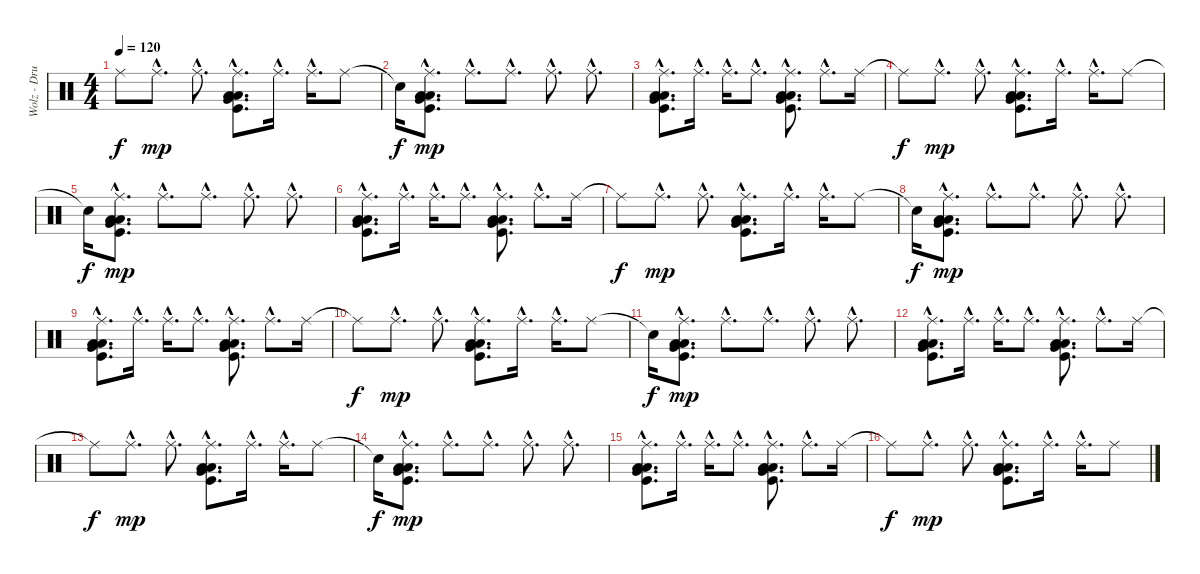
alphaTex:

\track ("Wolz - Drums" "Wolz - Dru") {instrument percussion}
\staff {score}
\articulation defaults
\ts (4 4)
\tempo 120
\clef neutral
\ks c "Ride (middle)"{t}.8{dy f} "Ride (middle)"{hac}.8{d dy mp} "Ride (middle)"{hac}.8{d bu 60}
("Ride (middle)"{hac} "Low Tom (hit)"{hac} "Very Low Tom (hit)"{hac} "Low Floor Tom (hit)"{hac} "Kick (hit)"{hac}).8{d bu 60} "Ride (middle)"{hac}.16{d} "Ride (middle)"{hac}.16{d} "Ride (middle)".8 |
"Snare (hit)"{t}.16{dy f} ("Ride (middle)"{hac} "Low Tom (hit)"{hac} "Very Low Tom (hit)"{hac} "Low Floor Tom (hit)"{hac} "Kick (hit)"{hac}).8{d bu 60 dy mp} "Ride (middle)"{hac}.8{d} "Ride (middle)"{hac}.8{d} "Ride (middle)"{hac}.8{d} "Ride (middle)"{hac}.8{d} |
("Ride (middle)"{hac} "Low Tom (hit)"{hac} "Very Low Tom (hit)"{hac} "Low Floor Tom (hit)"{hac} "Kick (hit)"{hac}).8{d bu 60} "Ride (middle)"{hac}.16{d} "Ride (middle)"{hac}.16{d} "Ride (middle)"{hac}.8{d} ("Ride (middle)"{hac} "Low Tom (hit)"{hac} "Very Low Tom (hit)"{hac} "Low Floor Tom (hit)"{hac} "Kick (hit)"{hac}).8{d bu 60} "Ride (middle)"{hac}.8{d} "Ride (middle)".16 |
"Ride (middle)"{t}.8{dy f} "Ride (middle)"{hac}.8{d dy mp} "Ride (middle)"{hac}.8{d bu 60} ("Ride (middle)"{hac} "Low Tom (hit)"{hac} "Very Low Tom (hit)"{hac} "Low Floor Tom (hit)"{hac} "Kick (hit)"{hac}).8{d bu 60} "Ride (middle)"{hac}.16{d} "Ride (middle)"{hac}.16{d} "Ride (middle)".8 |
"Snare (hit)"{t}.16{dy f} ("Ride (middle)"{hac} "Low Tom (hit)"{hac} "Very Low Tom (hit)"{hac} "Low Floor Tom (hit)"{hac} "Kick (hit)"{hac}).8{d bu 60 dy mp} "Ride (middle)"{hac}.8{d} "Ride (middle)"{hac}.8{d} "Ride (middle)"{hac}.8{d} "Ride (middle)"{hac}.8{d} |
("Ride (middle)"{hac} "Low Tom (hit)"{hac} "Very Low Tom (hit)"{hac} "Low Floor Tom (hit)"{hac} "Kick (hit)"{hac}).8{d bu 60} "Ride (middle)"{hac}.16{d} "Ride (middle)"{hac}.16{d} "Ride (middle)"{hac}.8{d} ("Ride (middle)"{hac} "Low Tom (hit)"{hac} "Very Low Tom (hit)"{hac} "Low Floor Tom (hit)"{hac} "Kick (hit)"{hac}).8{d bu 60} "Ride (middle)"{hac}.8{d} "Ride (middle)".16 |
"Ride (middle)"{t}.8{dy f} "Ride (middle)"{hac}.8{d dy mp} "Ride (middle)"{hac}.8{d bu 60} ("Ride (middle)"{hac} "Low Tom (hit)"{hac} "Very Low Tom (hit)"{hac} "Low Floor Tom (hit)"{hac} "Kick (hit)"{hac}).8{d bu 60} "Ride (middle)"{hac}.16{d} "Ride (middle)"{hac}.16{d} "Ride (middle)".8 |
"Snare (hit)"{t}.16{dy f} ("Ride (middle)"{hac} "Low Tom (hit)"{hac} "Very Low Tom (hit)"{hac} "Low Floor Tom (hit)"{hac} "Kick (hit)"{hac}).8{d bu 60 dy mp} "Ride (middle)"{hac}.8{d} "Ride (middle)"{hac}.8{d} "Ride (middle)"{hac}.8{d} "Ride (middle)"{hac}.8{d} |
("Ride (middle)"{hac} "Low Tom (hit)"{hac} "Very Low Tom (hit)"{hac} "Low Floor Tom (hit)"{hac} "Kick (hit)"{hac}).8{d bu 60} "Ride (middle)"{hac}.16{d} "Ride (middle)"{hac}.16{d} "Ride (middle)"{hac}.8{d} ("Ride (middle)"{hac} "Low Tom (hit)"{hac} "Very Low Tom (hit)"{hac} "Low Floor Tom (hit)"{hac} "Kick (hit)"{hac}).8{d bu 60} "Ride (middle)"{hac}.8{d} "Ride (middle)".16 |
"Ride (middle)"{t}.8{dy f} "Ride (middle)"{hac}.8{d dy mp} "Ride (middle)"{hac}.8{d bu 60} ("Ride (middle)"{hac} "Low Tom (hit)"{hac} "Very Low Tom (hit)"{hac} "Low Floor Tom (hit)"{hac} "Kick (hit)"{hac}).8{d bu 60} "Ride (middle)"{hac}.16{d} "Ride (middle)"{hac}.16{d} "Ride (middle)".8 |
"Snare (hit)"{t}.16{dy f} ("Ride (middle)"{hac} "Low Tom (hit)"{hac} "Very Low Tom (hit)"{hac} "Low Floor Tom (hit)"{hac} "Kick (hit)"{hac}).8{d bu 60 dy mp} "Ride (middle)"{hac}.8{d} "Ride (middle)"{hac}.8{d} "Ride (middle)"{hac}.8{d} "Ride (middle)"{hac}.8{d} |
("Ride (middle)"{hac} "Low Tom (hit)"{hac} "Very Low Tom (hit)"{hac} "Low Floor Tom (hit)"{hac} "Kick (hit)"{hac}).8{d bu 60} "Ride (middle)"{hac}.16{d} "Ride (middle)"{hac}.16{d} "Ride (middle)"{hac}.8{d} ("Ride (middle)"{hac} "Low Tom (hit)"{hac} "Very Low Tom (hit)"{hac} "Low Floor Tom (hit)"{hac} "Kick (hit)"{hac}).8{d bu 60} "Ride (middle)"{hac}.8{d} "Ride (middle)".16 |
"Ride (middle)"{t}.8{dy f} "Ride (middle)"{hac}.8{d dy mp} "Ride (middle)"{hac}.8{d bu 60} ("Ride (middle)"{hac} "Low Tom (hit)"{hac} "Very Low Tom (hit)"{hac} "Low Floor Tom (hit)"{hac} "Kick (hit)"{hac}).8{d bu 60} "Ride (middle)"{hac}.16{d} "Ride (middle)"{hac}.16{d} "Ride (middle)".8 |
"Snare (hit)"{t}.16{dy f} ("Ride (middle)"{hac} "Low Tom (hit)"{hac} "Very Low Tom (hit)"{hac} "Low Floor Tom (hit)"{hac} "Kick (hit)"{hac}).8{d bu 60 dy mp} "Ride (middle)"{hac}.8{d} "Ride (middle)"{hac}.8{d} "Ride (middle)"{hac}.8{d} "Ride (middle)"{hac}.8{d} |
("Ride (middle)"{hac} "Low Tom (hit)"{hac} "Very Low Tom (hit)"{hac} "Low Floor Tom (hit)"{hac} "Kick (hit)"{hac}).8{d bu 60} "Ride (middle)"{hac}.16{d} "Ride (middle)"{hac}.16{d} "Ride (middle)"{hac}.8{d} ("Ride (middle)"{hac} "Low Tom (hit)"{hac} "Very Low Tom (hit)"{hac} "Low Floor Tom (hit)"{hac} "Kick (hit)"{hac}).8{d bu 60} "Ride (middle)"{hac}.8{d} "Ride (middle)".16 |
"Ride (middle)"{t}.8{dy f} "Ride (middle)"{hac}.8{d dy mp} "Ride (middle)"{hac}.8{d bu 60} ("Ride (middle)"{hac} "Low Tom (hit)"{hac} "Very Low Tom (hit)"{hac} "Low Floor Tom (hit)"{hac} "Kick (hit)"{hac}).8{d bu 60} "Ride (middle)"{hac}.16{d} "Ride (middle)"{hac}.16{d} "Ride (middle)".8
